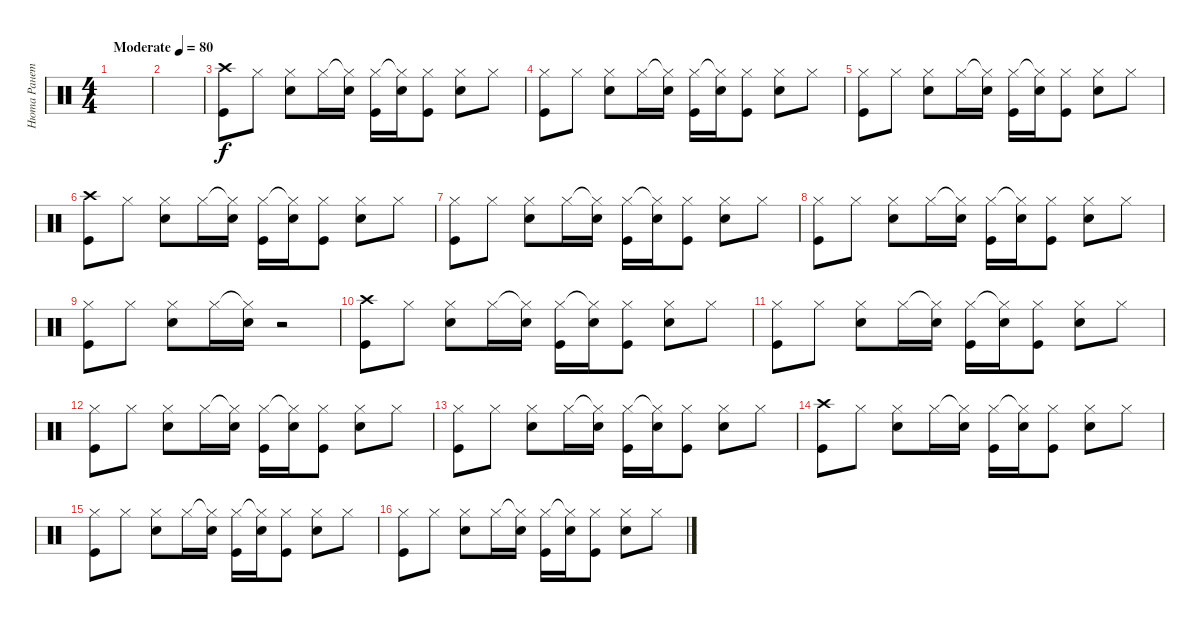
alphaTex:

\track ("Нюта Ранетка" "Нюта Ранет") {instrument percussion}
\staff {score}
\articulation defaults
\ts (4 4)
\tempo (80 "Moderate")
\clef neutral
\ks c
|
|
("Crash high (hit)" "Kick (hit)").8 "Hi-Hat (closed)".8 ("Hi-Hat (closed)" "Electric Snare (hit)").8 "Hi-Hat (closed)".16 ("Hi-Hat (closed)"{t} "Electric Snare (hit)").16 ("Hi-Hat (closed)" "Kick (hit)").16 ("Hi-Hat (closed)"{t} "Electric Snare (hit)").16 ("Hi-Hat (closed)" "Kick (hit)").8 ("Hi-Hat (closed)" "Electric Snare (hit)").8 "Hi-Hat (closed)".8 |
("Hi-Hat (closed)" "Kick (hit)").8 "Hi-Hat (closed)".8 ("Hi-Hat (closed)" "Electric Snare (hit)").8 "Hi-Hat (closed)".16 ("Hi-Hat (closed)"{t} "Electric Snare (hit)").16 ("Hi-Hat (closed)" "Kick (hit)").16 ("Hi-Hat (closed)"{t} "Electric Snare (hit)").16 ("Hi-Hat (closed)" "Kick (hit)").8 ("Hi-Hat (closed)" "Electric Snare (hit)").8 "Hi-Hat (closed)".8 |
("Hi-Hat (closed)" "Kick (hit)").8 "Hi-Hat (closed)".8 ("Hi-Hat (closed)" "Electric Snare (hit)").8 "Hi-Hat (closed)".16 ("Hi-Hat (closed)"{t} "Electric Snare (hit)").16 ("Hi-Hat (closed)" "Kick (hit)").16 ("Hi-Hat (closed)"{t} "Electric Snare (hit)").16 ("Hi-Hat (closed)" "Kick (hit)").8 ("Hi-Hat (closed)" "Electric Snare (hit)").8 "Hi-Hat (closed)".8 |
("Crash high (hit)" "Kick (hit)").8 "Hi-Hat (closed)".8 ("Hi-Hat (closed)" "Electric Snare (hit)").8 "Hi-Hat (closed)".16 ("Hi-Hat (closed)"{t} "Electric Snare (hit)").16 ("Hi-Hat (closed)" "Kick (hit)").16 ("Hi-Hat (closed)"{t} "Electric Snare (hit)").16 ("Hi-Hat (closed)" "Kick (hit)").8 ("Hi-Hat (closed)" "Electric Snare (hit)").8 "Hi-Hat (closed)".8 |
("Hi-Hat (closed)" "Kick (hit)").8 "Hi-Hat (closed)".8 ("Hi-Hat (closed)" "Electric Snare (hit)").8 "Hi-Hat (closed)".16 ("Hi-Hat (closed)"{t} "Electric Snare (hit)").16 ("Hi-Hat (closed)" "Kick (hit)").16 ("Hi-Hat (closed)"{t} "Electric Snare (hit)").16 ("Hi-Hat (closed)" "Kick (hit)").8 ("Hi-Hat (closed)" "Electric Snare (hit)").8 "Hi-Hat (closed)".8 |
("Hi-Hat (closed)" "Kick (hit)").8 "Hi-Hat (closed)".8 ("Hi-Hat (closed)" "Electric Snare (hit)").8 "Hi-Hat (closed)".16 ("Hi-Hat (closed)"{t} "Electric Snare (hit)").16 ("Hi-Hat (closed)" "Kick (hit)").16 ("Hi-Hat (closed)"{t} "Electric Snare (hit)").16 ("Hi-Hat (closed)" "Kick (hit)").8 ("Hi-Hat (closed)" "Electric Snare (hit)").8 "Hi-Hat (closed)".8 |
("Hi-Hat (closed)" "Kick (hit)").8 "Hi-Hat (closed)".8 ("Hi-Hat (closed)" "Electric Snare (hit)").8 "Hi-Hat (closed)".16 ("Hi-Hat (closed)"{t} "Electric Snare (hit)").16 r.2 |
("Crash high (hit)" "Kick (hit)").8 "Hi-Hat (closed)".8 ("Hi-Hat (closed)" "Electric Snare (hit)").8 "Hi-Hat (closed)".16 ("Hi-Hat (closed)"{t} "Electric Snare (hit)").16 ("Hi-Hat (closed)" "Kick (hit)").16 ("Hi-Hat (closed)"{t} "Electric Snare (hit)").16 ("Hi-Hat (closed)" "Kick (hit)").8 ("Hi-Hat (closed)" "Electric Snare (hit)").8 "Hi-Hat (closed)".8 |
("Hi-Hat (closed)" "Kick (hit)").8 "Hi-Hat (closed)".8 ("Hi-Hat (closed)" "Electric Snare (hit)").8 "Hi-Hat (closed)".16 ("Hi-Hat (closed)"{t} "Electric Snare (hit)").16 ("Hi-Hat (closed)" "Kick (hit)").16 ("Hi-Hat (closed)"{t} "Electric Snare (hit)").16 ("Hi-Hat (closed)" "Kick (hit)").8 ("Hi-Hat (closed)" "Electric Snare (hit)").8 "Hi-Hat (closed)".8 |
("Hi-Hat (closed)" "Kick (hit)").8 "Hi-Hat (closed)".8 ("Hi-Hat (closed)" "Electric Snare (hit)").8 "Hi-Hat (closed)".16 ("Hi-Hat (closed)"{t} "Electric Snare (hit)").16 ("Hi-Hat (closed)" "Kick (hit)").16 ("Hi-Hat (closed)"{t} "Electric Snare (hit)").16 ("Hi-Hat (closed)" "Kick (hit)").8 ("Hi-Hat (closed)" "Electric Snare (hit)").8 "Hi-Hat (closed)".8 |
("Hi-Hat (closed)" "Kick (hit)").8 "Hi-Hat (closed)".8 ("Hi-Hat (closed)" "Electric Snare (hit)").8 "Hi-Hat (closed)".16 ("Hi-Hat (closed)"{t} "Electric Snare (hit)").16 ("Hi-Hat (closed)" "Kick (hit)").16 ("Hi-Hat (closed)"{t} "Electric Snare (hit)").16 ("Hi-Hat (closed)" "Kick (hit)").8 ("Hi-Hat (closed)" "Electric Snare (hit)").8 "Hi-Hat (closed)".8 |
("Crash high (hit)" "Kick (hit)").8 "Hi-Hat (closed)".8 ("Hi-Hat (closed)" "Electric Snare (hit)").8 "Hi-Hat (closed)".16 ("Hi-Hat (closed)"{t} "Electric Snare (hit)").16 ("Hi-Hat (closed)" "Kick (hit)").16 ("Hi-Hat (closed)"{t} "Electric Snare (hit)").16 ("Hi-Hat (closed)" "Kick (hit)").8 ("Hi-Hat (closed)" "Electric Snare (hit)").8 "Hi-Hat (closed)".8 |
("Hi-Hat (closed)" "Kick (hit)").8 "Hi-Hat (closed)".8 ("Hi-Hat (closed)" "Electric Snare (hit)").8 "Hi-Hat (closed)".16 ("Hi-Hat (closed)"{t} "Electric Snare (hit)").16 ("Hi-Hat (closed)" "Kick (hit)").16 ("Hi-Hat (closed)"{t} "Electric Snare (hit)").16 ("Hi-Hat (closed)" "Kick (hit)").8 ("Hi-Hat (closed)" "Electric Snare (hit)").8 "Hi-Hat (closed)".8 |
("Hi-Hat (closed)" "Kick (hit)").8 "Hi-Hat (closed)".8 ("Hi-Hat (closed)" "Electric Snare (hit)").8 "Hi-Hat (closed)".16 ("Hi-Hat (closed)"{t} "Electric Snare (hit)").16 ("Hi-Hat (closed)" "Kick (hit)").16 ("Hi-Hat (closed)"{t} "Electric Snare (hit)").16 ("Hi-Hat (closed)" "Kick (hit)").8 ("Hi-Hat (closed)" "Electric Snare (hit)").8 "Hi-Hat (closed)".8
